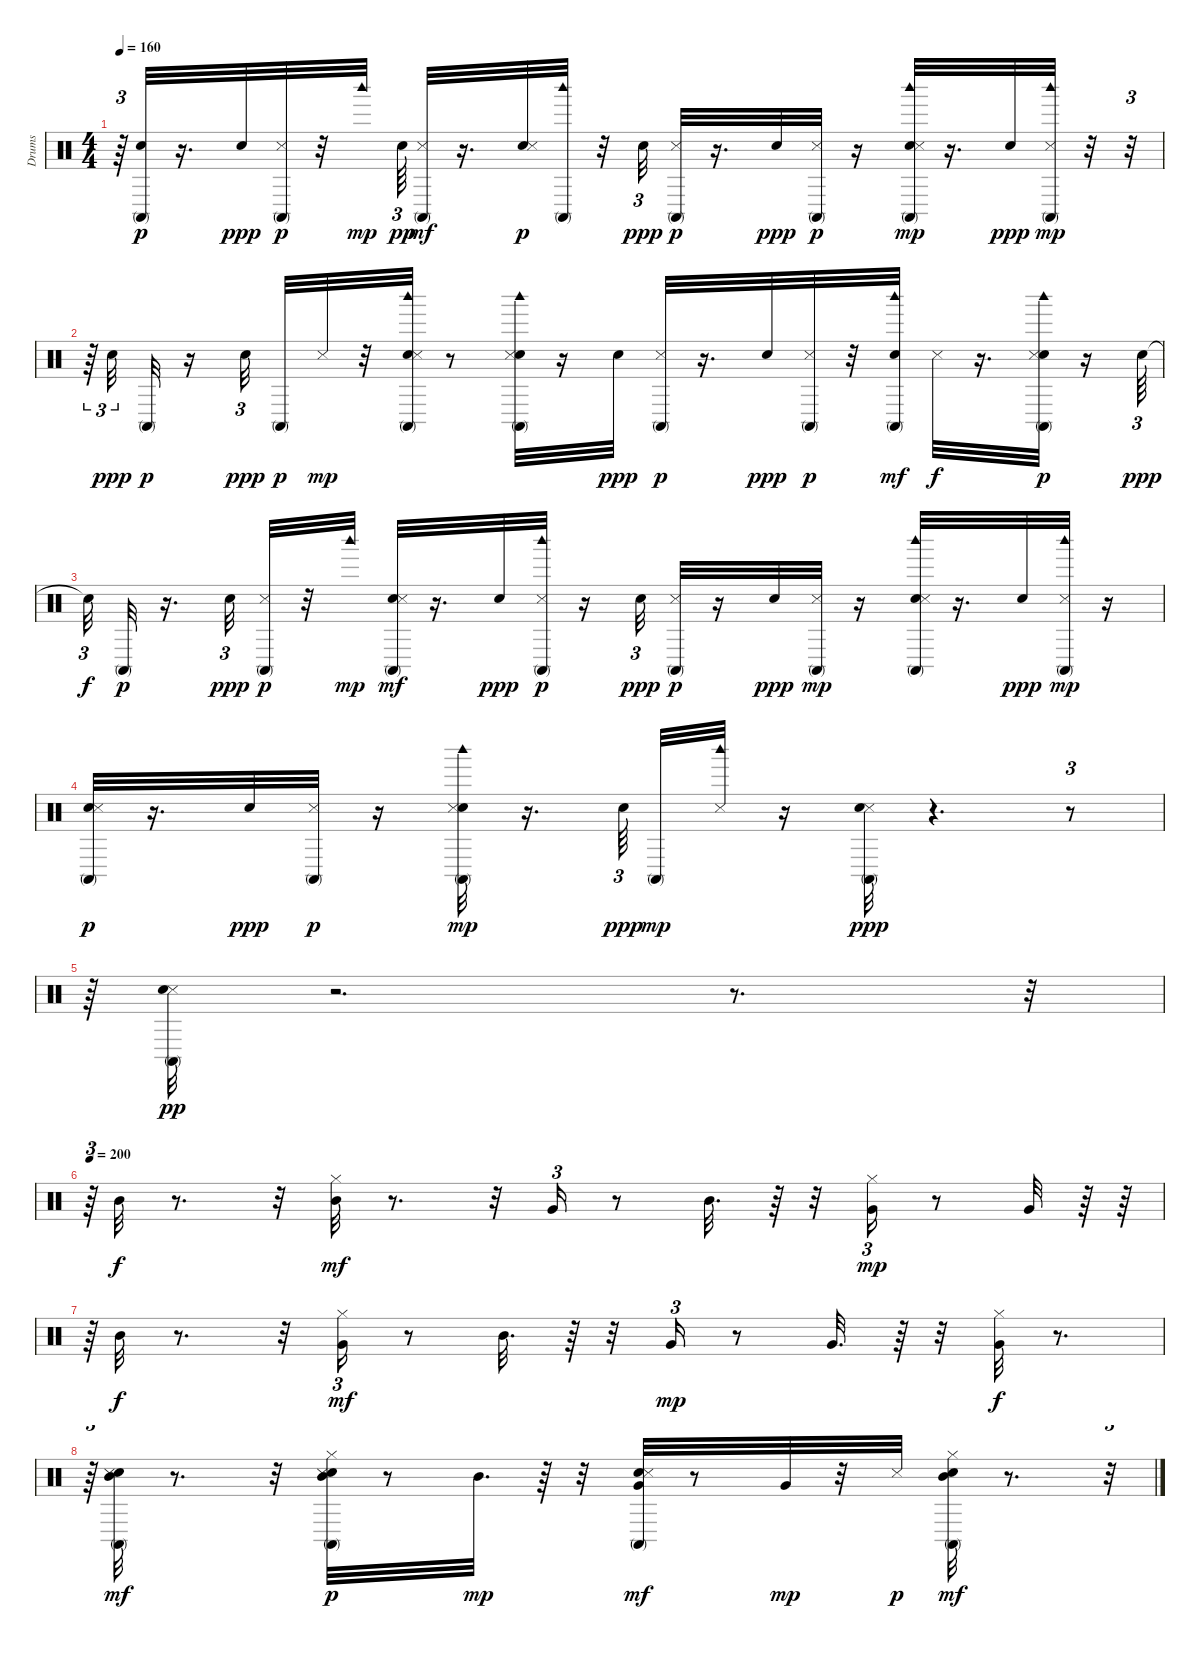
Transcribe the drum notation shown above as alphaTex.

\track ("Drums" "Drums") {instrument percussion}
\staff {score}
\articulation defaults
\ts (4 4)
\tempo 160
\clef neutral
\ks c
r.64{tu (3 2) dy mp} ("Hand Clap (hit)" "Conga high (mute)").32{dy p} r.16{d} "Hand Clap (hit)".32{dy ppp} ("Snare (side stick) 3" "Conga high (mute)").32{dy p} r.32 "Woodblock high (hit)".32{dy mp} "Hand Clap (hit)".64{tu (3 2) dy pp} ("Conga high (mute)" "Snare (side stick) 3").32{dy mf} r.16{d} ("Hand Clap (hit)" "Snare (side stick) 3").32{dy p} ("Conga high (mute)" "Woodblock high (hit)").32 r.32 "Hand Clap (hit)".32{tu (3 2) dy ppp} ("Snare (side stick) 3" "Conga high (mute)").32{dy p} r.16{d} "Hand Clap (hit)".32{dy ppp} ("Snare (side stick) 3" "Conga high (mute)").32{dy p} r.16 ("Hand Clap (hit)" "Conga high (mute)" "Woodblock high (hit)" "Snare (side stick) 3").32{dy mp} r.16{d} "Hand Clap (hit)".32{dy ppp} ("Snare (side stick) 3" "Conga high (mute)" "Woodblock high (hit)").32{dy mp} r.32 r.32{tu (3 2)} |
r.64{tu (3 2)} "Hand Clap (hit)".32{tu (3 2) dy ppp} "Conga high (mute)".32{dy p} r.16 "Hand Clap (hit)".32{tu (3 2) dy ppp beam splitsecondary} "Conga high (mute)".32{dy p} "Snare (side stick) 3".32{dy mp} r.32 ("Hand Clap (hit)" "Snare (side stick) 3" "Conga high (mute)" "Woodblock high (hit)").32 r.8 ("Hand Clap (hit)" "Conga high (mute)" "Snare (side stick) 3" "Woodblock high (hit)").32 r.16 "Hand Clap (hit)".32{dy ppp} ("Snare (side stick) 3" "Conga high (mute)").32{dy p} r.16{d} "Hand Clap (hit)".32{dy ppp} ("Snare (side stick) 3" "Conga high (mute)").32{dy p} r.32 ("Woodblock high (hit)" "Hand Clap (hit)" "Conga high (mute)").32{dy mf} "Snare (side stick) 3".32{dy f} r.16{d} ("Hand Clap (hit)" "Woodblock high (hit)" "Conga high (mute)" "Snare (side stick) 3").32{dy p} r.16 "Hand Clap (hit)".64{tu (3 2) dy ppp} |
"Snare (hit)"{t}.32{tu (3 2) dy f} "Conga high (mute)".32{dy p} r.16{d} "Hand Clap (hit)".32{tu (3 2) dy ppp} ("Snare (side stick) 3" "Conga high (mute)").32{dy p} r.32 "Woodblock high (hit)".32{dy mp} ("Hand Clap (hit)" "Conga high (mute)" "Snare (side stick) 3").32{dy mf} r.16{d} "Hand Clap (hit)".32{dy ppp} ("Woodblock high (hit)" "Conga high (mute)" "Snare (side stick) 3").32{dy p} r.16 "Hand Clap (hit)".32{tu (3 2) dy ppp} ("Conga high (mute)" "Snare (side stick) 3").32{dy p} r.16 "Hand Clap (hit)".32{dy ppp} ("Conga high (mute)" "Snare (side stick) 3").32{dy mp} r.16 ("Hand Clap (hit)" "Conga high (mute)" "Snare (side stick) 3" "Woodblock high (hit)").32 r.16{d} "Hand Clap (hit)".32{dy ppp} ("Conga high (mute)" "Snare (side stick) 3" "Woodblock high (hit)").32{dy mp} r.16 |
("Conga high (mute)" "Hand Clap (hit)" "Snare (side stick) 3").32{dy p} r.16{d} "Hand Clap (hit)".32{dy ppp} ("Snare (side stick) 3" "Conga high (mute)").32{dy p} r.16 ("Conga high (mute)" "Hand Clap (hit)" "Snare (side stick) 3" "Woodblock high (hit)").32{dy mp} r.16{d} "Hand Clap (hit)".64{tu (3 2) dy ppp beam splitsecondary} "Conga high (mute)".32{dy mp} ("Snare (side stick) 3" "Woodblock high (hit)").32 r.16 ("Conga high (mute)" "Snare (side stick) 3" "Hand Clap (hit)").32{dy ppp} r.4{d} r.8{tu (3 2)} |
r.64{tu (3 2)} ("Snare (side stick) 3" "Conga high (mute)" "Hand Clap (hit)").32{dy pp} r.2{d} r.8{d} r.32{tu (3 2)} |
\tempo 200
r.64{tu (3 2)} "Mid Tom (hit)".32{dy f} r.8{d} r.32 ("Hi-Hat (closed)" "Mid Tom (hit)").32{dy mf} r.8{d} r.32 "Very Low Tom (hit)".16{tu (3 2)} r.8 "Mid Tom (hit)".32{d} r.64 r.32 ("Hi-Hat (closed)" "Very Low Tom (hit)").16{tu (3 2) dy mp} r.8 "Very Low Tom (hit)".32 r.64 r.64 |
r.64{tu (3 2)} "Mid Tom (hit)".32{dy f} r.8{d} r.32 ("Hi-Hat (closed)" "Very Low Tom (hit)").16{tu (3 2) dy mf} r.8 "Mid Tom (hit)".32{d} r.64 r.32 "Very Low Tom (hit)".16{tu (3 2) dy mp} r.8 "Very Low Tom (hit)".32{d} r.64 r.32 ("Hi-Hat (closed)" "Very Low Tom (hit)").32{dy f} r.8{d} |
r.64{tu (3 2)} ("Mid Tom (hit)" "Hand Clap (hit)" "Snare (side stick) 3" "Conga high (mute)").32{dy mf} r.8{d} r.32 ("Hi-Hat (closed)" "Mid Tom (hit)" "Hand Clap (hit)" "Conga high (mute)" "Snare (side stick) 3").32{dy p} r.8 "Mid Tom (hit)".32{d dy mp} r.64 r.32 ("Very Low Tom (hit)" "Hand Clap (hit)" "Snare (side stick) 3" "Conga high (mute)").32{dy mf} r.8 "Very Low Tom (hit)".32{dy mp} r.32 "Snare (side stick) 3".32{dy p} ("Hi-Hat (closed)" "Mid Tom (hit)" "Hand Clap (hit)" "Conga high (mute)").32{dy mf} r.8{d} r.32{tu (3 2)}
